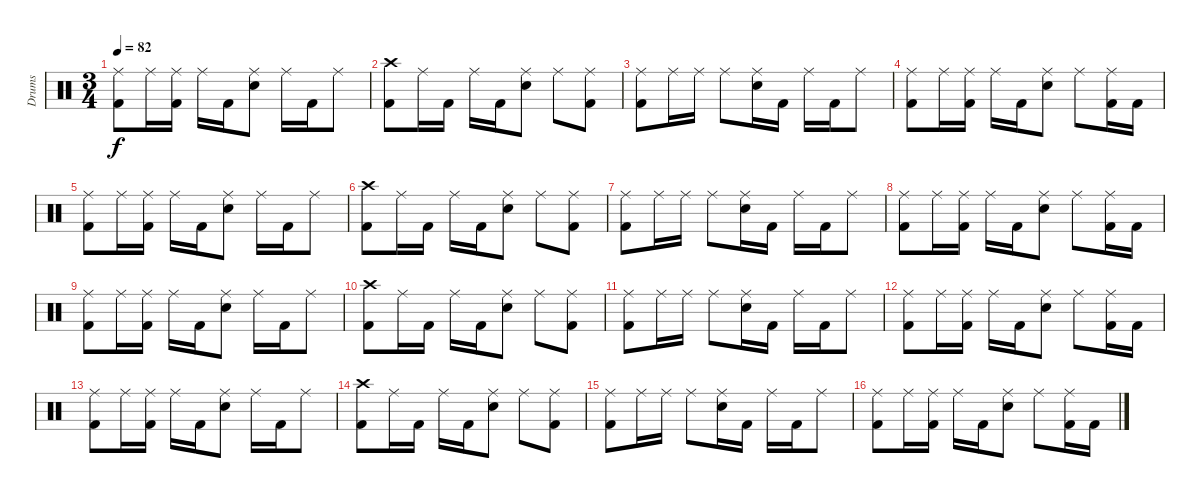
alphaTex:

\track ("Drums" "Drums") {instrument percussion}
\staff {score}
\articulation defaults
\ts (3 4)
\tempo 82
\clef neutral
\ks c
("Ride (middle)" "Kick (hit) 2").8{dy f} "Ride (middle)".16 ("Ride (middle)" "Kick (hit) 2").16 "Ride (middle)".16 "Kick (hit) 2".16 ("Ride (middle)" "Electric Snare (hit)").8 "Ride (middle)".16 "Kick (hit) 2".16 "Ride (middle)".8 |
("Crash high (hit)" "Kick (hit) 2").8 "Ride (middle)".16 "Kick (hit) 2".16 "Ride (middle)".16 "Kick (hit) 2".16 ("Ride (middle)" "Electric Snare (hit)").8 "Ride (middle)".8 ("Ride (middle)" "Kick (hit) 2").8 |
("Ride (middle)" "Kick (hit) 2").8 "Ride (middle)".16 "Ride (middle)".16 "Ride (middle)".8 ("Ride (middle)" "Electric Snare (hit)").16 "Kick (hit) 2".16 "Ride (middle)".16 "Kick (hit) 2".16 "Ride (middle)".8 |
("Ride (middle)" "Kick (hit) 2").8 "Ride (middle)".16 ("Ride (middle)" "Kick (hit) 2").16 "Ride (middle)".16 "Kick (hit) 2".16 ("Ride (middle)" "Electric Snare (hit)").8 "Ride (middle)".8 ("Ride (middle)" "Kick (hit) 2").16 "Kick (hit) 2".16 |
("Ride (middle)" "Kick (hit) 2").8 "Ride (middle)".16 ("Ride (middle)" "Kick (hit) 2").16 "Ride (middle)".16 "Kick (hit) 2".16 ("Ride (middle)" "Electric Snare (hit)").8 "Ride (middle)".16 "Kick (hit) 2".16 "Ride (middle)".8 |
("Crash high (hit)" "Kick (hit) 2").8 "Ride (middle)".16 "Kick (hit) 2".16 "Ride (middle)".16 "Kick (hit) 2".16 ("Ride (middle)" "Electric Snare (hit)").8 "Ride (middle)".8 ("Ride (middle)" "Kick (hit) 2").8 |
("Ride (middle)" "Kick (hit) 2").8 "Ride (middle)".16 "Ride (middle)".16 "Ride (middle)".8 ("Ride (middle)" "Electric Snare (hit)").16 "Kick (hit) 2".16 "Ride (middle)".16 "Kick (hit) 2".16 "Ride (middle)".8 |
("Ride (middle)" "Kick (hit) 2").8 "Ride (middle)".16 ("Ride (middle)" "Kick (hit) 2").16 "Ride (middle)".16 "Kick (hit) 2".16 ("Ride (middle)" "Electric Snare (hit)").8 "Ride (middle)".8 ("Ride (middle)" "Kick (hit) 2").16 "Kick (hit) 2".16 |
("Ride (middle)" "Kick (hit) 2").8 "Ride (middle)".16 ("Ride (middle)" "Kick (hit) 2").16 "Ride (middle)".16 "Kick (hit) 2".16 ("Ride (middle)" "Electric Snare (hit)").8 "Ride (middle)".16 "Kick (hit) 2".16 "Ride (middle)".8 |
("Crash high (hit)" "Kick (hit) 2").8 "Ride (middle)".16 "Kick (hit) 2".16 "Ride (middle)".16 "Kick (hit) 2".16 ("Ride (middle)" "Electric Snare (hit)").8 "Ride (middle)".8 ("Ride (middle)" "Kick (hit) 2").8 |
("Ride (middle)" "Kick (hit) 2").8 "Ride (middle)".16 "Ride (middle)".16 "Ride (middle)".8 ("Ride (middle)" "Electric Snare (hit)").16 "Kick (hit) 2".16 "Ride (middle)".16 "Kick (hit) 2".16 "Ride (middle)".8 |
("Ride (middle)" "Kick (hit) 2").8 "Ride (middle)".16 ("Ride (middle)" "Kick (hit) 2").16 "Ride (middle)".16 "Kick (hit) 2".16 ("Ride (middle)" "Electric Snare (hit)").8 "Ride (middle)".8 ("Ride (middle)" "Kick (hit) 2").16 "Kick (hit) 2".16 |
("Ride (middle)" "Kick (hit) 2").8 "Ride (middle)".16 ("Ride (middle)" "Kick (hit) 2").16 "Ride (middle)".16 "Kick (hit) 2".16 ("Ride (middle)" "Electric Snare (hit)").8 "Ride (middle)".16 "Kick (hit) 2".16 "Ride (middle)".8 |
("Crash high (hit)" "Kick (hit) 2").8 "Ride (middle)".16 "Kick (hit) 2".16 "Ride (middle)".16 "Kick (hit) 2".16 ("Ride (middle)" "Electric Snare (hit)").8 "Ride (middle)".8 ("Ride (middle)" "Kick (hit) 2").8 |
("Ride (middle)" "Kick (hit) 2").8 "Ride (middle)".16 "Ride (middle)".16 "Ride (middle)".8 ("Ride (middle)" "Electric Snare (hit)").16 "Kick (hit) 2".16 "Ride (middle)".16 "Kick (hit) 2".16 "Ride (middle)".8 |
("Ride (middle)" "Kick (hit) 2").8 "Ride (middle)".16 ("Ride (middle)" "Kick (hit) 2").16 "Ride (middle)".16 "Kick (hit) 2".16 ("Ride (middle)" "Electric Snare (hit)").8 "Ride (middle)".8 ("Ride (middle)" "Kick (hit) 2").16 "Kick (hit) 2".16
